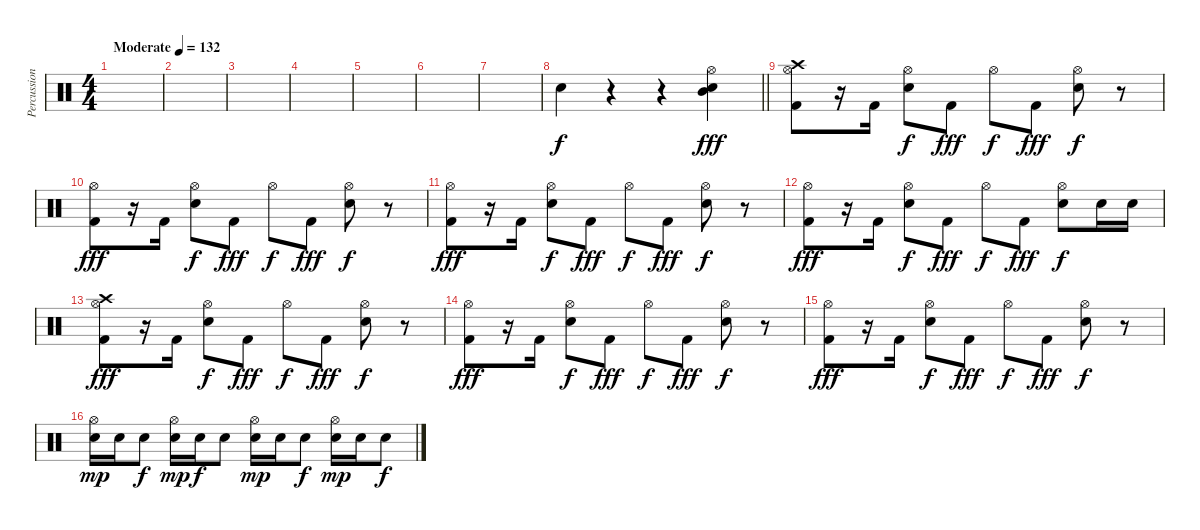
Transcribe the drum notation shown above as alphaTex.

\track ("Percussion" "Percussion") {instrument percussion}
\staff {score}
\articulation defaults
\ts (4 4)
\tempo (132 "Moderate")
\clef neutral
\ks c
|
|
|
|
|
|
|
\barLineRight lightlight "Electric Snare (hit)".4
r.4 r.4 ("Mid Tom (hit)" "Electric Snare (hit)" "Hi-Hat (open)").4{dy fff} |
\section ("" "")
("Kick (hit) 2" "Hi-Hat (open)" "Crash high (hit)").8 r.16 "Kick (hit) 2".16 ("Electric Snare (hit)" "Hi-Hat (open)").8{dy f} "Kick (hit) 2".8{dy fff} "Hi-Hat (open)".8{dy f} "Kick (hit) 2".8{dy fff} ("Electric Snare (hit)" "Hi-Hat (open)").8{dy f} r.8 |
("Kick (hit) 2" "Hi-Hat (open)").8{dy fff} r.16 "Kick (hit) 2".16 ("Electric Snare (hit)" "Hi-Hat (open)").8{dy f} "Kick (hit) 2".8{dy fff} "Hi-Hat (open)".8{dy f} "Kick (hit) 2".8{dy fff} ("Electric Snare (hit)" "Hi-Hat (open)").8{dy f} r.8 |
("Kick (hit) 2" "Hi-Hat (open)").8{dy fff} r.16 "Kick (hit) 2".16 ("Electric Snare (hit)" "Hi-Hat (open)").8{dy f} "Kick (hit) 2".8{dy fff} "Hi-Hat (open)".8{dy f} "Kick (hit) 2".8{dy fff} ("Electric Snare (hit)" "Hi-Hat (open)").8{dy f} r.8 |
("Kick (hit) 2" "Hi-Hat (open)").8{dy fff} r.16 "Kick (hit) 2".16 ("Electric Snare (hit)" "Hi-Hat (open)").8{dy f} "Kick (hit) 2".8{dy fff} "Hi-Hat (open)".8{dy f} "Kick (hit) 2".8{dy fff} ("Electric Snare (hit)" "Hi-Hat (open)").8{dy f} "Electric Snare (hit)".16 "Electric Snare (hit)".16 |
("Kick (hit) 2" "Hi-Hat (open)" "Crash high (hit)").8{dy fff} r.16 "Kick (hit) 2".16 ("Electric Snare (hit)" "Hi-Hat (open)").8{dy f} "Kick (hit) 2".8{dy fff} "Hi-Hat (open)".8{dy f} "Kick (hit) 2".8{dy fff} ("Electric Snare (hit)" "Hi-Hat (open)").8{dy f} r.8 |
("Kick (hit) 2" "Hi-Hat (open)").8{dy fff} r.16 "Kick (hit) 2".16 ("Electric Snare (hit)" "Hi-Hat (open)").8{dy f} "Kick (hit) 2".8{dy fff} "Hi-Hat (open)".8{dy f} "Kick (hit) 2".8{dy fff} ("Electric Snare (hit)" "Hi-Hat (open)").8{dy f} r.8 |
("Kick (hit) 2" "Hi-Hat (open)").8{dy fff} r.16 "Kick (hit) 2".16 ("Electric Snare (hit)" "Hi-Hat (open)").8{dy f} "Kick (hit) 2".8{dy fff} "Hi-Hat (open)".8{dy f} "Kick (hit) 2".8{dy fff} ("Electric Snare (hit)" "Hi-Hat (open)").8{dy f} r.8 |
("Electric Snare (hit)" "Hi-Hat (open)").16{dy mp} "Electric Snare (hit)".16 "Electric Snare (hit)".8{dy f} ("Electric Snare (hit)" "Hi-Hat (open)").16{dy mp} "Electric Snare (hit)".16{dy f} "Electric Snare (hit)".8 ("Electric Snare (hit)" "Hi-Hat (open)").16{dy mp} "Electric Snare (hit)".16 "Electric Snare (hit)".8{dy f} ("Electric Snare (hit)" "Hi-Hat (open)").16{dy mp} "Electric Snare (hit)".16 "Electric Snare (hit)".8{dy f}
